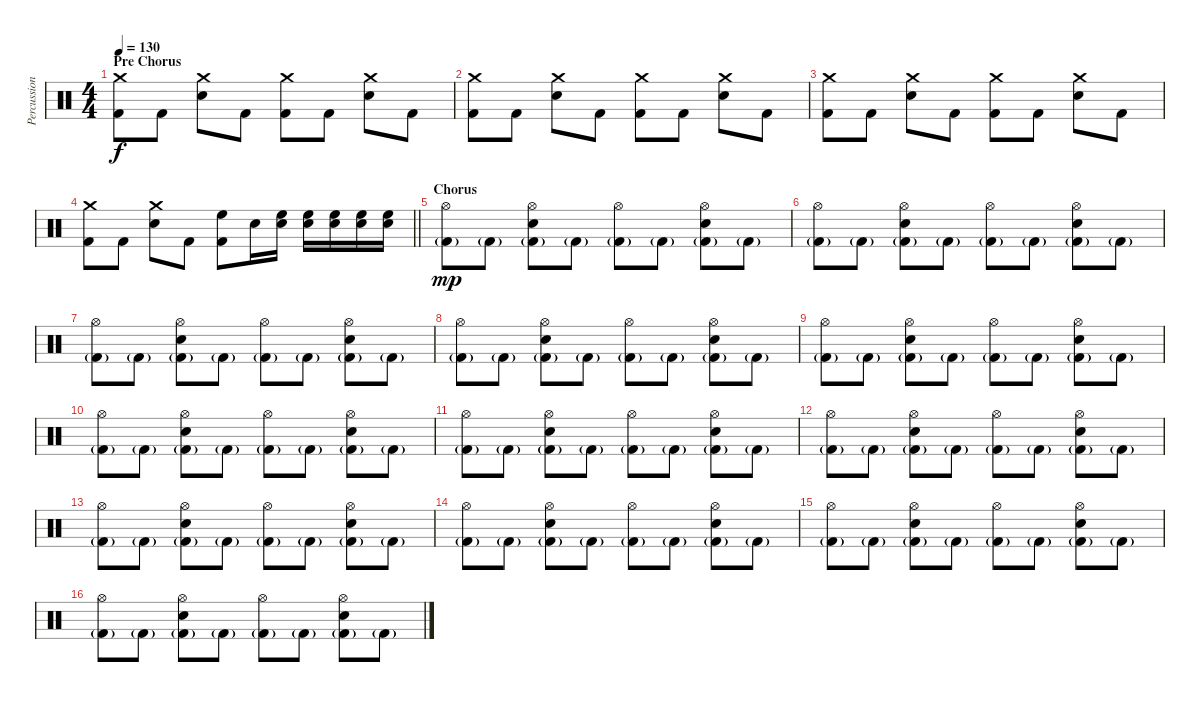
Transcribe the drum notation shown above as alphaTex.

\track ("Percussions" "Percussion") {instrument percussion}
\staff {score}
\articulation defaults
\ts (4 4)
\section ("" "Pre Chorus")
\tempo 130
\clef neutral
\ks c
("Crash medium (hit)" "Kick (hit) 2").8{dy f} "Kick (hit) 2".8 ("Crash medium (hit)" "Electric Snare (hit)").8 "Kick (hit) 2".8 ("Crash medium (hit)" "Kick (hit) 2").8 "Kick (hit) 2".8 ("Crash medium (hit)" "Electric Snare (hit)").8 "Kick (hit) 2".8 |
("Crash medium (hit)" "Kick (hit) 2").8 "Kick (hit) 2".8 ("Crash medium (hit)" "Electric Snare (hit)").8 "Kick (hit) 2".8 ("Crash medium (hit)" "Kick (hit) 2").8 "Kick (hit) 2".8 ("Crash medium (hit)" "Electric Snare (hit)").8 "Kick (hit) 2".8 |
("Crash medium (hit)" "Kick (hit) 2").8 "Kick (hit) 2".8 ("Crash medium (hit)" "Electric Snare (hit)").8 "Kick (hit) 2".8 ("Crash medium (hit)" "Kick (hit) 2").8 "Kick (hit) 2".8 ("Crash medium (hit)" "Electric Snare (hit)").8 "Kick (hit) 2".8 |
\barLineRight lightlight
("Crash medium (hit)" "Kick (hit) 2").8 "Kick (hit) 2".8 ("Crash medium (hit)" "Electric Snare (hit)").8 "Kick (hit) 2".8 ("High Floor Tom (hit)" "Kick (hit) 2").8 "Electric Snare (hit)".16 ("High Floor Tom (hit)" "Electric Snare (hit)").16 ("High Floor Tom (hit)" "Electric Snare (hit)").16 ("High Floor Tom (hit)" "Electric Snare (hit)").16 ("High Floor Tom (hit)" "Electric Snare (hit)").16 ("High Floor Tom (hit)" "Electric Snare (hit)").16 |
\section ("" "Chorus")
("Hi-Hat (open)" "Kick (hit) 2"{g}).8{dy mp} "Kick (hit) 2"{g}.8 ("Hi-Hat (open)" "Electric Snare (hit)" "Kick (hit) 2"{g}).8 "Kick (hit) 2"{g}.8 ("Hi-Hat (open)" "Kick (hit) 2"{g}).8 "Kick (hit) 2"{g}.8 ("Hi-Hat (open)" "Electric Snare (hit)" "Kick (hit) 2"{g}).8 "Kick (hit) 2"{g}.8 |
("Hi-Hat (open)" "Kick (hit) 2"{g}).8 "Kick (hit) 2"{g}.8 ("Hi-Hat (open)" "Electric Snare (hit)" "Kick (hit) 2"{g}).8 "Kick (hit) 2"{g}.8 ("Hi-Hat (open)" "Kick (hit) 2"{g}).8 "Kick (hit) 2"{g}.8 ("Hi-Hat (open)" "Electric Snare (hit)" "Kick (hit) 2"{g}).8 "Kick (hit) 2"{g}.8 |
("Hi-Hat (open)" "Kick (hit) 2"{g}).8 "Kick (hit) 2"{g}.8 ("Hi-Hat (open)" "Electric Snare (hit)" "Kick (hit) 2"{g}).8 "Kick (hit) 2"{g}.8 ("Hi-Hat (open)" "Kick (hit) 2"{g}).8 "Kick (hit) 2"{g}.8 ("Hi-Hat (open)" "Electric Snare (hit)" "Kick (hit) 2"{g}).8 "Kick (hit) 2"{g}.8 |
("Hi-Hat (open)" "Kick (hit) 2"{g}).8 "Kick (hit) 2"{g}.8 ("Hi-Hat (open)" "Electric Snare (hit)" "Kick (hit) 2"{g}).8 "Kick (hit) 2"{g}.8 ("Hi-Hat (open)" "Kick (hit) 2"{g}).8 "Kick (hit) 2"{g}.8 ("Hi-Hat (open)" "Electric Snare (hit)" "Kick (hit) 2"{g}).8 "Kick (hit) 2"{g}.8 |
("Hi-Hat (open)" "Kick (hit) 2"{g}).8 "Kick (hit) 2"{g}.8 ("Hi-Hat (open)" "Electric Snare (hit)" "Kick (hit) 2"{g}).8 "Kick (hit) 2"{g}.8 ("Hi-Hat (open)" "Kick (hit) 2"{g}).8 "Kick (hit) 2"{g}.8 ("Hi-Hat (open)" "Electric Snare (hit)" "Kick (hit) 2"{g}).8 "Kick (hit) 2"{g}.8 |
("Hi-Hat (open)" "Kick (hit) 2"{g}).8 "Kick (hit) 2"{g}.8 ("Hi-Hat (open)" "Electric Snare (hit)" "Kick (hit) 2"{g}).8 "Kick (hit) 2"{g}.8 ("Hi-Hat (open)" "Kick (hit) 2"{g}).8 "Kick (hit) 2"{g}.8 ("Hi-Hat (open)" "Electric Snare (hit)" "Kick (hit) 2"{g}).8 "Kick (hit) 2"{g}.8 |
("Hi-Hat (open)" "Kick (hit) 2"{g}).8 "Kick (hit) 2"{g}.8 ("Hi-Hat (open)" "Electric Snare (hit)" "Kick (hit) 2"{g}).8 "Kick (hit) 2"{g}.8 ("Hi-Hat (open)" "Kick (hit) 2"{g}).8 "Kick (hit) 2"{g}.8 ("Hi-Hat (open)" "Electric Snare (hit)" "Kick (hit) 2"{g}).8 "Kick (hit) 2"{g}.8 |
("Hi-Hat (open)" "Kick (hit) 2"{g}).8 "Kick (hit) 2"{g}.8 ("Hi-Hat (open)" "Electric Snare (hit)" "Kick (hit) 2"{g}).8 "Kick (hit) 2"{g}.8 ("Hi-Hat (open)" "Kick (hit) 2"{g}).8 "Kick (hit) 2"{g}.8 ("Hi-Hat (open)" "Electric Snare (hit)" "Kick (hit) 2"{g}).8 "Kick (hit) 2"{g}.8 |
("Hi-Hat (open)" "Kick (hit) 2"{g}).8 "Kick (hit) 2"{g}.8 ("Hi-Hat (open)" "Electric Snare (hit)" "Kick (hit) 2"{g}).8 "Kick (hit) 2"{g}.8 ("Hi-Hat (open)" "Kick (hit) 2"{g}).8 "Kick (hit) 2"{g}.8 ("Hi-Hat (open)" "Electric Snare (hit)" "Kick (hit) 2"{g}).8 "Kick (hit) 2"{g}.8 |
("Hi-Hat (open)" "Kick (hit) 2"{g}).8 "Kick (hit) 2"{g}.8 ("Hi-Hat (open)" "Electric Snare (hit)" "Kick (hit) 2"{g}).8 "Kick (hit) 2"{g}.8 ("Hi-Hat (open)" "Kick (hit) 2"{g}).8 "Kick (hit) 2"{g}.8 ("Hi-Hat (open)" "Electric Snare (hit)" "Kick (hit) 2"{g}).8 "Kick (hit) 2"{g}.8 |
("Hi-Hat (open)" "Kick (hit) 2"{g}).8 "Kick (hit) 2"{g}.8 ("Hi-Hat (open)" "Electric Snare (hit)" "Kick (hit) 2"{g}).8 "Kick (hit) 2"{g}.8 ("Hi-Hat (open)" "Kick (hit) 2"{g}).8 "Kick (hit) 2"{g}.8 ("Hi-Hat (open)" "Electric Snare (hit)" "Kick (hit) 2"{g}).8 "Kick (hit) 2"{g}.8 |
("Hi-Hat (open)" "Kick (hit) 2"{g}).8 "Kick (hit) 2"{g}.8 ("Hi-Hat (open)" "Electric Snare (hit)" "Kick (hit) 2"{g}).8 "Kick (hit) 2"{g}.8 ("Hi-Hat (open)" "Kick (hit) 2"{g}).8 "Kick (hit) 2"{g}.8 ("Hi-Hat (open)" "Electric Snare (hit)" "Kick (hit) 2"{g}).8 "Kick (hit) 2"{g}.8
